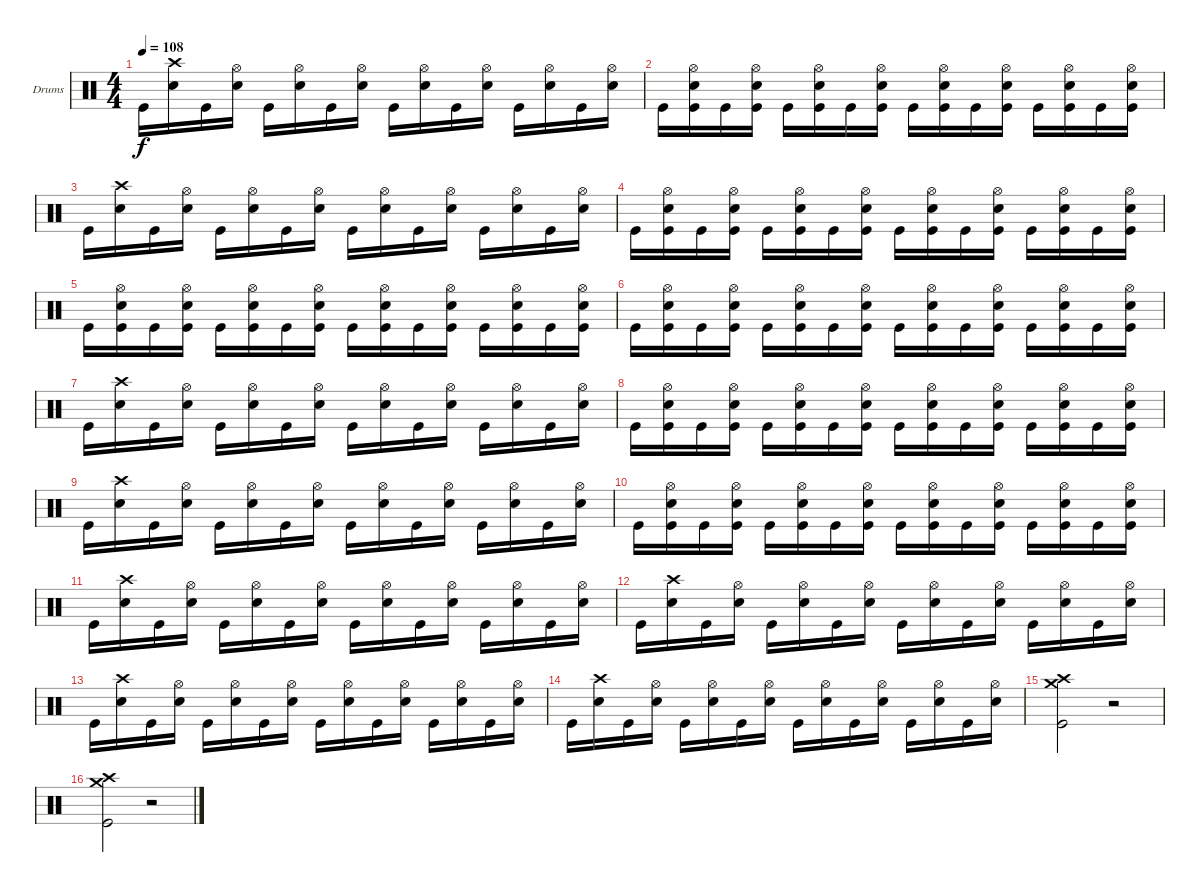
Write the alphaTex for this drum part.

\bracketExtendMode groupsimilarinstruments
\firstSystemTrackNameOrientation horizontal
\otherSystemsTrackNameOrientation horizontal
\track ("Drumkit" "Drums") {instrument percussion}
\staff {score}
\articulation defaults
\ts (4 4)
\tempo 108
\clef neutral
\ks c "Kick (hit)".16{dy f}
("Crash high (hit)" "Snare (hit) 2").16 "Kick (hit)".16 ("Hi-Hat (open)" "Snare (hit) 2").16 "Kick (hit)".16 ("Hi-Hat (open)" "Snare (hit) 2").16 "Kick (hit)".16 ("Hi-Hat (open)" "Snare (hit) 2").16 "Kick (hit)".16 ("Hi-Hat (open)" "Snare (hit) 2").16 "Kick (hit)".16 ("Hi-Hat (open)" "Snare (hit) 2").16 "Kick (hit)".16 ("Hi-Hat (open)" "Snare (hit) 2").16 "Kick (hit)".16 ("Hi-Hat (open)" "Snare (hit) 2").16 |
"Kick (hit)".16 ("Hi-Hat (open)" "Snare (hit) 2" "Kick (hit)").16 "Kick (hit)".16 ("Hi-Hat (open)" "Snare (hit) 2" "Kick (hit)").16 "Kick (hit)".16 ("Hi-Hat (open)" "Snare (hit) 2" "Kick (hit)").16 "Kick (hit)".16 ("Hi-Hat (open)" "Snare (hit) 2" "Kick (hit)").16 "Kick (hit)".16 ("Hi-Hat (open)" "Snare (hit) 2" "Kick (hit)").16 "Kick (hit)".16 ("Hi-Hat (open)" "Snare (hit) 2" "Kick (hit)").16 "Kick (hit)".16 ("Hi-Hat (open)" "Snare (hit) 2" "Kick (hit)").16 "Kick (hit)".16 ("Hi-Hat (open)" "Snare (hit) 2" "Kick (hit)").16 |
"Kick (hit)".16 ("Crash high (hit)" "Snare (hit) 2").16 "Kick (hit)".16 ("Hi-Hat (open)" "Snare (hit) 2").16 "Kick (hit)".16 ("Hi-Hat (open)" "Snare (hit) 2").16 "Kick (hit)".16 ("Hi-Hat (open)" "Snare (hit) 2").16 "Kick (hit)".16 ("Hi-Hat (open)" "Snare (hit) 2").16 "Kick (hit)".16 ("Hi-Hat (open)" "Snare (hit) 2").16 "Kick (hit)".16 ("Hi-Hat (open)" "Snare (hit) 2").16 "Kick (hit)".16 ("Hi-Hat (open)" "Snare (hit) 2").16 |
"Kick (hit)".16 ("Hi-Hat (open)" "Snare (hit) 2" "Kick (hit)").16 "Kick (hit)".16 ("Hi-Hat (open)" "Snare (hit) 2" "Kick (hit)").16 "Kick (hit)".16 ("Hi-Hat (open)" "Snare (hit) 2" "Kick (hit)").16 "Kick (hit)".16 ("Hi-Hat (open)" "Snare (hit) 2" "Kick (hit)").16 "Kick (hit)".16 ("Hi-Hat (open)" "Snare (hit) 2" "Kick (hit)").16 "Kick (hit)".16 ("Hi-Hat (open)" "Snare (hit) 2" "Kick (hit)").16 "Kick (hit)".16 ("Hi-Hat (open)" "Snare (hit) 2" "Kick (hit)").16 "Kick (hit)".16 ("Hi-Hat (open)" "Snare (hit) 2" "Kick (hit)").16 |
"Kick (hit)".16 ("Hi-Hat (open)" "Snare (hit) 2" "Kick (hit)").16 "Kick (hit)".16 ("Hi-Hat (open)" "Snare (hit) 2" "Kick (hit)").16 "Kick (hit)".16 ("Hi-Hat (open)" "Snare (hit) 2" "Kick (hit)").16 "Kick (hit)".16 ("Hi-Hat (open)" "Snare (hit) 2" "Kick (hit)").16 "Kick (hit)".16 ("Hi-Hat (open)" "Snare (hit) 2" "Kick (hit)").16 "Kick (hit)".16 ("Hi-Hat (open)" "Snare (hit) 2" "Kick (hit)").16 "Kick (hit)".16 ("Hi-Hat (open)" "Snare (hit) 2" "Kick (hit)").16 "Kick (hit)".16 ("Hi-Hat (open)" "Snare (hit) 2" "Kick (hit)").16 |
"Kick (hit)".16 ("Hi-Hat (open)" "Snare (hit) 2" "Kick (hit)").16 "Kick (hit)".16 ("Hi-Hat (open)" "Snare (hit) 2" "Kick (hit)").16 "Kick (hit)".16 ("Hi-Hat (open)" "Snare (hit) 2" "Kick (hit)").16 "Kick (hit)".16 ("Hi-Hat (open)" "Snare (hit) 2" "Kick (hit)").16 "Kick (hit)".16 ("Hi-Hat (open)" "Snare (hit) 2" "Kick (hit)").16 "Kick (hit)".16 ("Hi-Hat (open)" "Snare (hit) 2" "Kick (hit)").16 "Kick (hit)".16 ("Hi-Hat (open)" "Snare (hit) 2" "Kick (hit)").16 "Kick (hit)".16 ("Hi-Hat (open)" "Snare (hit) 2" "Kick (hit)").16 |
"Kick (hit)".16 ("Crash high (hit)" "Snare (hit) 2").16 "Kick (hit)".16 ("Hi-Hat (open)" "Snare (hit) 2").16 "Kick (hit)".16 ("Hi-Hat (open)" "Snare (hit) 2").16 "Kick (hit)".16 ("Hi-Hat (open)" "Snare (hit) 2").16 "Kick (hit)".16 ("Hi-Hat (open)" "Snare (hit) 2").16 "Kick (hit)".16 ("Hi-Hat (open)" "Snare (hit) 2").16 "Kick (hit)".16 ("Hi-Hat (open)" "Snare (hit) 2").16 "Kick (hit)".16 ("Hi-Hat (open)" "Snare (hit) 2").16 |
"Kick (hit)".16 ("Hi-Hat (open)" "Snare (hit) 2" "Kick (hit)").16 "Kick (hit)".16 ("Hi-Hat (open)" "Snare (hit) 2" "Kick (hit)").16 "Kick (hit)".16 ("Hi-Hat (open)" "Snare (hit) 2" "Kick (hit)").16 "Kick (hit)".16 ("Hi-Hat (open)" "Snare (hit) 2" "Kick (hit)").16 "Kick (hit)".16 ("Hi-Hat (open)" "Snare (hit) 2" "Kick (hit)").16 "Kick (hit)".16 ("Hi-Hat (open)" "Snare (hit) 2" "Kick (hit)").16 "Kick (hit)".16 ("Hi-Hat (open)" "Snare (hit) 2" "Kick (hit)").16 "Kick (hit)".16 ("Hi-Hat (open)" "Snare (hit) 2" "Kick (hit)").16 |
"Kick (hit)".16 ("Crash high (hit)" "Snare (hit) 2").16 "Kick (hit)".16 ("Hi-Hat (open)" "Snare (hit) 2").16 "Kick (hit)".16 ("Hi-Hat (open)" "Snare (hit) 2").16 "Kick (hit)".16 ("Hi-Hat (open)" "Snare (hit) 2").16 "Kick (hit)".16 ("Hi-Hat (open)" "Snare (hit) 2").16 "Kick (hit)".16 ("Hi-Hat (open)" "Snare (hit) 2").16 "Kick (hit)".16 ("Hi-Hat (open)" "Snare (hit) 2").16 "Kick (hit)".16 ("Hi-Hat (open)" "Snare (hit) 2").16 |
"Kick (hit)".16 ("Hi-Hat (open)" "Snare (hit) 2" "Kick (hit)").16 "Kick (hit)".16 ("Hi-Hat (open)" "Snare (hit) 2" "Kick (hit)").16 "Kick (hit)".16 ("Hi-Hat (open)" "Snare (hit) 2" "Kick (hit)").16 "Kick (hit)".16 ("Hi-Hat (open)" "Snare (hit) 2" "Kick (hit)").16 "Kick (hit)".16 ("Hi-Hat (open)" "Snare (hit) 2" "Kick (hit)").16 "Kick (hit)".16 ("Hi-Hat (open)" "Snare (hit) 2" "Kick (hit)").16 "Kick (hit)".16 ("Hi-Hat (open)" "Snare (hit) 2" "Kick (hit)").16 "Kick (hit)".16 ("Hi-Hat (open)" "Snare (hit) 2" "Kick (hit)").16 |
"Kick (hit)".16 ("Crash high (hit)" "Snare (hit) 2").16 "Kick (hit)".16 ("Hi-Hat (open)" "Snare (hit) 2").16 "Kick (hit)".16 ("Hi-Hat (open)" "Snare (hit) 2").16 "Kick (hit)".16 ("Hi-Hat (open)" "Snare (hit) 2").16 "Kick (hit)".16 ("Hi-Hat (open)" "Snare (hit) 2").16 "Kick (hit)".16 ("Hi-Hat (open)" "Snare (hit) 2").16 "Kick (hit)".16 ("Hi-Hat (open)" "Snare (hit) 2").16 "Kick (hit)".16 ("Hi-Hat (open)" "Snare (hit) 2").16 |
"Kick (hit)".16 ("Crash high (hit)" "Snare (hit) 2").16 "Kick (hit)".16 ("Hi-Hat (open)" "Snare (hit) 2").16 "Kick (hit)".16 ("Hi-Hat (open)" "Snare (hit) 2").16 "Kick (hit)".16 ("Hi-Hat (open)" "Snare (hit) 2").16 "Kick (hit)".16 ("Hi-Hat (open)" "Snare (hit) 2").16 "Kick (hit)".16 ("Hi-Hat (open)" "Snare (hit) 2").16 "Kick (hit)".16 ("Hi-Hat (open)" "Snare (hit) 2").16 "Kick (hit)".16 ("Hi-Hat (open)" "Snare (hit) 2").16 |
"Kick (hit)".16 ("Crash high (hit)" "Snare (hit) 2").16 "Kick (hit)".16 ("Hi-Hat (open)" "Snare (hit) 2").16 "Kick (hit)".16 ("Hi-Hat (open)" "Snare (hit) 2").16 "Kick (hit)".16 ("Hi-Hat (open)" "Snare (hit) 2").16 "Kick (hit)".16 ("Hi-Hat (open)" "Snare (hit) 2").16 "Kick (hit)".16 ("Hi-Hat (open)" "Snare (hit) 2").16 "Kick (hit)".16 ("Hi-Hat (open)" "Snare (hit) 2").16 "Kick (hit)".16 ("Hi-Hat (open)" "Snare (hit) 2").16 |
"Kick (hit)".16 ("Crash high (hit)" "Snare (hit) 2").16 "Kick (hit)".16 ("Hi-Hat (open)" "Snare (hit) 2").16 "Kick (hit)".16 ("Hi-Hat (open)" "Snare (hit) 2").16 "Kick (hit)".16 ("Hi-Hat (open)" "Snare (hit) 2").16 "Kick (hit)".16 ("Hi-Hat (open)" "Snare (hit) 2").16 "Kick (hit)".16 ("Hi-Hat (open)" "Snare (hit) 2").16 "Kick (hit)".16 ("Hi-Hat (open)" "Snare (hit) 2").16 "Kick (hit)".16 ("Hi-Hat (open)" "Snare (hit) 2").16 |
("Crash high (hit)" "Crash medium (hit)" "Kick (hit)").2 r.2 |
("Crash high (hit)" "Crash medium (hit)" "Kick (hit)").2 r.2
